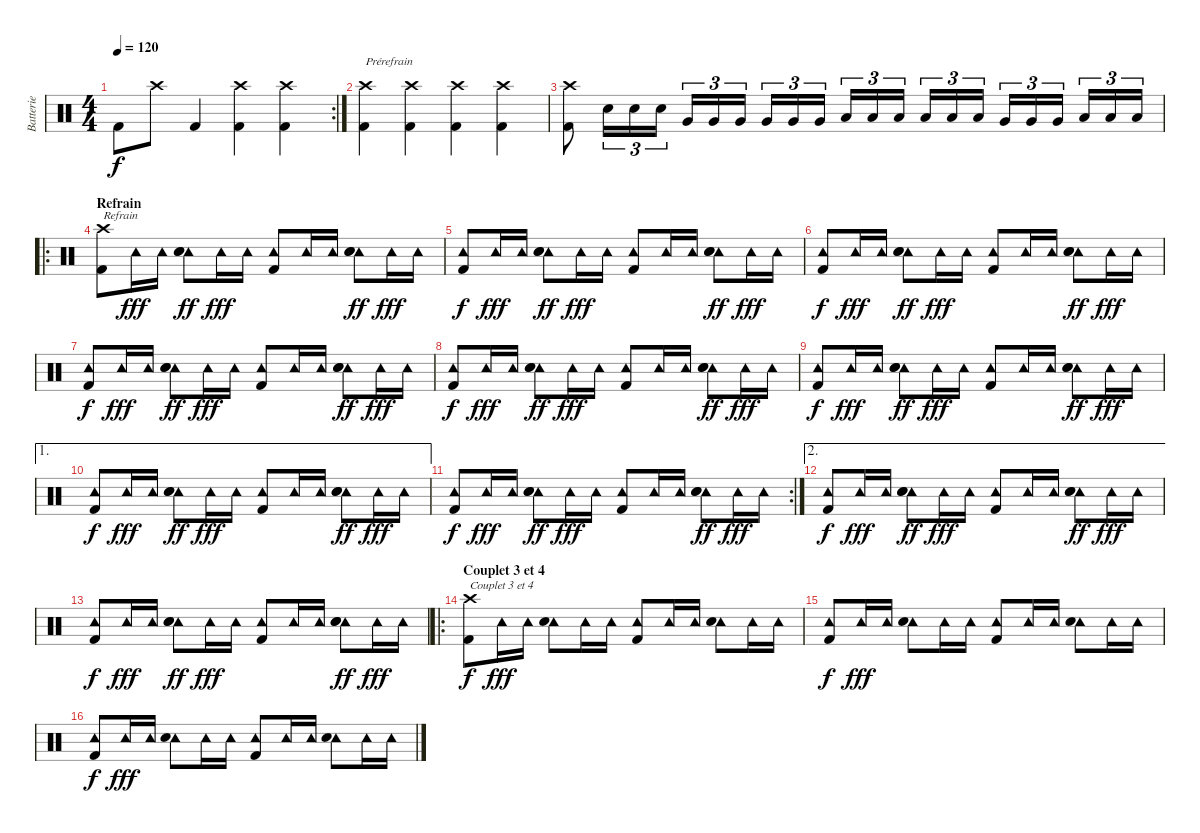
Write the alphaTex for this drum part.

\track ("Batterie" "Batterie") {instrument percussion}
\staff {score}
\articulation defaults
\rc 2
\ts (4 4)
\tempo 120
\clef neutral
\ks c "Kick (hit) 2".8{dy f} "Crash high (hit)".8 "Kick (hit) 2".4
("Crash high (hit)" "Kick (hit) 2").4 ("Crash high (hit)" "Kick (hit) 2").4 |
("Crash high (hit)" "Kick (hit) 2").4{txt "Prérefrain"} ("Crash high (hit)" "Kick (hit) 2").4 ("Crash high (hit)" "Kick (hit) 2").4 ("Crash high (hit)" "Kick (hit) 2").4 |
("Crash high (hit)" "Kick (hit) 2").8 "Electric Snare (hit)".16{tu (3 2)} "Electric Snare (hit)".16{tu (3 2)} "Electric Snare (hit)".16{tu (3 2)} "Very Low Tom (hit)".16{tu (3 2)} "Very Low Tom (hit)".16{tu (3 2)} "Very Low Tom (hit)".16{tu (3 2)} "Very Low Tom (hit)".16{tu (3 2)} "Very Low Tom (hit)".16{tu (3 2)} "Very Low Tom (hit)".16{tu (3 2)} "Low Tom (hit)".16{tu (3 2)} "Low Tom (hit)".16{tu (3 2)} "Low Tom (hit)".16{tu (3 2)} "Low Tom (hit)".16{tu (3 2)} "Low Tom (hit)".16{tu (3 2)} "Low Tom (hit)".16{tu (3 2)} "Very Low Tom (hit)".16{tu (3 2)} "Very Low Tom (hit)".16{tu (3 2)} "Very Low Tom (hit)".16{tu (3 2)} "Low Floor Tom (hit)".16{tu (3 2)} "Low Floor Tom (hit)".16{tu (3 2)} "Low Floor Tom (hit)".16{tu (3 2)} |
\ro
\section ("" "Refrain")
("Crash high (hit)" "Kick (hit) 2").8{txt "Refrain"} "Tambourine (hit)".16{dy fff} "Tambourine (hit)".16 ("Tambourine (hit)" "Electric Snare (hit)" "Hand Clap (hit)").8{dy ff} "Tambourine (hit)".16{dy fff} "Tambourine (hit)".16 ("Tambourine (hit)" "Kick (hit) 2").8 "Tambourine (hit)".16 "Tambourine (hit)".16 ("Tambourine (hit)" "Electric Snare (hit)" "Hand Clap (hit)").8{dy ff} "Tambourine (hit)".16{dy fff} "Tambourine (hit)".16 |
("Tambourine (hit)" "Kick (hit) 2").8{dy f} "Tambourine (hit)".16{dy fff} "Tambourine (hit)".16 ("Tambourine (hit)" "Electric Snare (hit)" "Hand Clap (hit)").8{dy ff} "Tambourine (hit)".16{dy fff} "Tambourine (hit)".16 ("Tambourine (hit)" "Kick (hit) 2").8 "Tambourine (hit)".16 "Tambourine (hit)".16 ("Tambourine (hit)" "Electric Snare (hit)" "Hand Clap (hit)").8{dy ff} "Tambourine (hit)".16{dy fff} "Tambourine (hit)".16 |
("Tambourine (hit)" "Kick (hit) 2").8{dy f} "Tambourine (hit)".16{dy fff} "Tambourine (hit)".16 ("Tambourine (hit)" "Electric Snare (hit)" "Hand Clap (hit)").8{dy ff} "Tambourine (hit)".16{dy fff} "Tambourine (hit)".16 ("Tambourine (hit)" "Kick (hit) 2").8 "Tambourine (hit)".16 "Tambourine (hit)".16 ("Tambourine (hit)" "Electric Snare (hit)" "Hand Clap (hit)").8{dy ff} "Tambourine (hit)".16{dy fff} "Tambourine (hit)".16 |
("Tambourine (hit)" "Kick (hit) 2").8{dy f} "Tambourine (hit)".16{dy fff} "Tambourine (hit)".16 ("Tambourine (hit)" "Electric Snare (hit)" "Hand Clap (hit)").8{dy ff} "Tambourine (hit)".16{dy fff} "Tambourine (hit)".16 ("Tambourine (hit)" "Kick (hit) 2").8 "Tambourine (hit)".16 "Tambourine (hit)".16 ("Tambourine (hit)" "Electric Snare (hit)" "Hand Clap (hit)").8{dy ff} "Tambourine (hit)".16{dy fff} "Tambourine (hit)".16 |
("Tambourine (hit)" "Kick (hit) 2").8{dy f} "Tambourine (hit)".16{dy fff} "Tambourine (hit)".16 ("Tambourine (hit)" "Electric Snare (hit)" "Hand Clap (hit)").8{dy ff} "Tambourine (hit)".16{dy fff} "Tambourine (hit)".16 ("Tambourine (hit)" "Kick (hit) 2").8 "Tambourine (hit)".16 "Tambourine (hit)".16 ("Tambourine (hit)" "Electric Snare (hit)" "Hand Clap (hit)").8{dy ff} "Tambourine (hit)".16{dy fff} "Tambourine (hit)".16 |
("Tambourine (hit)" "Kick (hit) 2").8{dy f} "Tambourine (hit)".16{dy fff} "Tambourine (hit)".16 ("Tambourine (hit)" "Electric Snare (hit)" "Hand Clap (hit)").8{dy ff} "Tambourine (hit)".16{dy fff} "Tambourine (hit)".16 ("Tambourine (hit)" "Kick (hit) 2").8 "Tambourine (hit)".16 "Tambourine (hit)".16 ("Tambourine (hit)" "Electric Snare (hit)" "Hand Clap (hit)").8{dy ff} "Tambourine (hit)".16{dy fff} "Tambourine (hit)".16 |
\ae 1
("Tambourine (hit)" "Kick (hit) 2").8{dy f} "Tambourine (hit)".16{dy fff} "Tambourine (hit)".16 ("Tambourine (hit)" "Electric Snare (hit)" "Hand Clap (hit)").8{dy ff} "Tambourine (hit)".16{dy fff} "Tambourine (hit)".16 ("Tambourine (hit)" "Kick (hit) 2").8 "Tambourine (hit)".16 "Tambourine (hit)".16 ("Tambourine (hit)" "Electric Snare (hit)" "Hand Clap (hit)").8{dy ff} "Tambourine (hit)".16{dy fff} "Tambourine (hit)".16 |
\rc 2
("Tambourine (hit)" "Kick (hit) 2").8{dy f} "Tambourine (hit)".16{dy fff} "Tambourine (hit)".16 ("Tambourine (hit)" "Electric Snare (hit)" "Hand Clap (hit)").8{dy ff} "Tambourine (hit)".16{dy fff} "Tambourine (hit)".16 ("Tambourine (hit)" "Kick (hit) 2").8 "Tambourine (hit)".16 "Tambourine (hit)".16 ("Tambourine (hit)" "Electric Snare (hit)" "Hand Clap (hit)").8{dy ff} "Tambourine (hit)".16{dy fff} "Tambourine (hit)".16 |
\ae 2
("Tambourine (hit)" "Kick (hit) 2").8{dy f} "Tambourine (hit)".16{dy fff} "Tambourine (hit)".16 ("Tambourine (hit)" "Electric Snare (hit)" "Hand Clap (hit)").8{dy ff} "Tambourine (hit)".16{dy fff} "Tambourine (hit)".16 ("Tambourine (hit)" "Kick (hit) 2").8 "Tambourine (hit)".16 "Tambourine (hit)".16 ("Tambourine (hit)" "Electric Snare (hit)" "Hand Clap (hit)").8{dy ff} "Tambourine (hit)".16{dy fff} "Tambourine (hit)".16 |
("Tambourine (hit)" "Kick (hit) 2").8{dy f} "Tambourine (hit)".16{dy fff} "Tambourine (hit)".16 ("Tambourine (hit)" "Electric Snare (hit)" "Hand Clap (hit)").8{dy ff} "Tambourine (hit)".16{dy fff} "Tambourine (hit)".16 ("Tambourine (hit)" "Kick (hit) 2").8 "Tambourine (hit)".16 "Tambourine (hit)".16 ("Tambourine (hit)" "Electric Snare (hit)" "Hand Clap (hit)").8{dy ff} "Tambourine (hit)".16{dy fff} "Tambourine (hit)".16 |
\ro
\section ("" "Couplet 3 et 4")
("Crash high (hit)" "Kick (hit) 2").8{txt "Couplet 3 et 4" dy f} "Tambourine (hit)".16{dy fff} "Tambourine (hit)".16 ("Tambourine (hit)" "Electric Snare (hit)").8 "Tambourine (hit)".16 "Tambourine (hit)".16 ("Tambourine (hit)" "Kick (hit) 2").8 "Tambourine (hit)".16 "Tambourine (hit)".16 ("Tambourine (hit)" "Electric Snare (hit)").8 "Tambourine (hit)".16 "Tambourine (hit)".16 |
("Tambourine (hit)" "Kick (hit) 2").8{dy f} "Tambourine (hit)".16{dy fff} "Tambourine (hit)".16 ("Tambourine (hit)" "Electric Snare (hit)").8 "Tambourine (hit)".16 "Tambourine (hit)".16 ("Tambourine (hit)" "Kick (hit) 2").8 "Tambourine (hit)".16 "Tambourine (hit)".16 ("Tambourine (hit)" "Electric Snare (hit)").8 "Tambourine (hit)".16 "Tambourine (hit)".16 |
("Tambourine (hit)" "Kick (hit) 2").8{dy f} "Tambourine (hit)".16{dy fff} "Tambourine (hit)".16 ("Tambourine (hit)" "Electric Snare (hit)").8 "Tambourine (hit)".16 "Tambourine (hit)".16 ("Tambourine (hit)" "Kick (hit) 2").8 "Tambourine (hit)".16 "Tambourine (hit)".16 ("Tambourine (hit)" "Electric Snare (hit)").8 "Tambourine (hit)".16 "Tambourine (hit)".16
